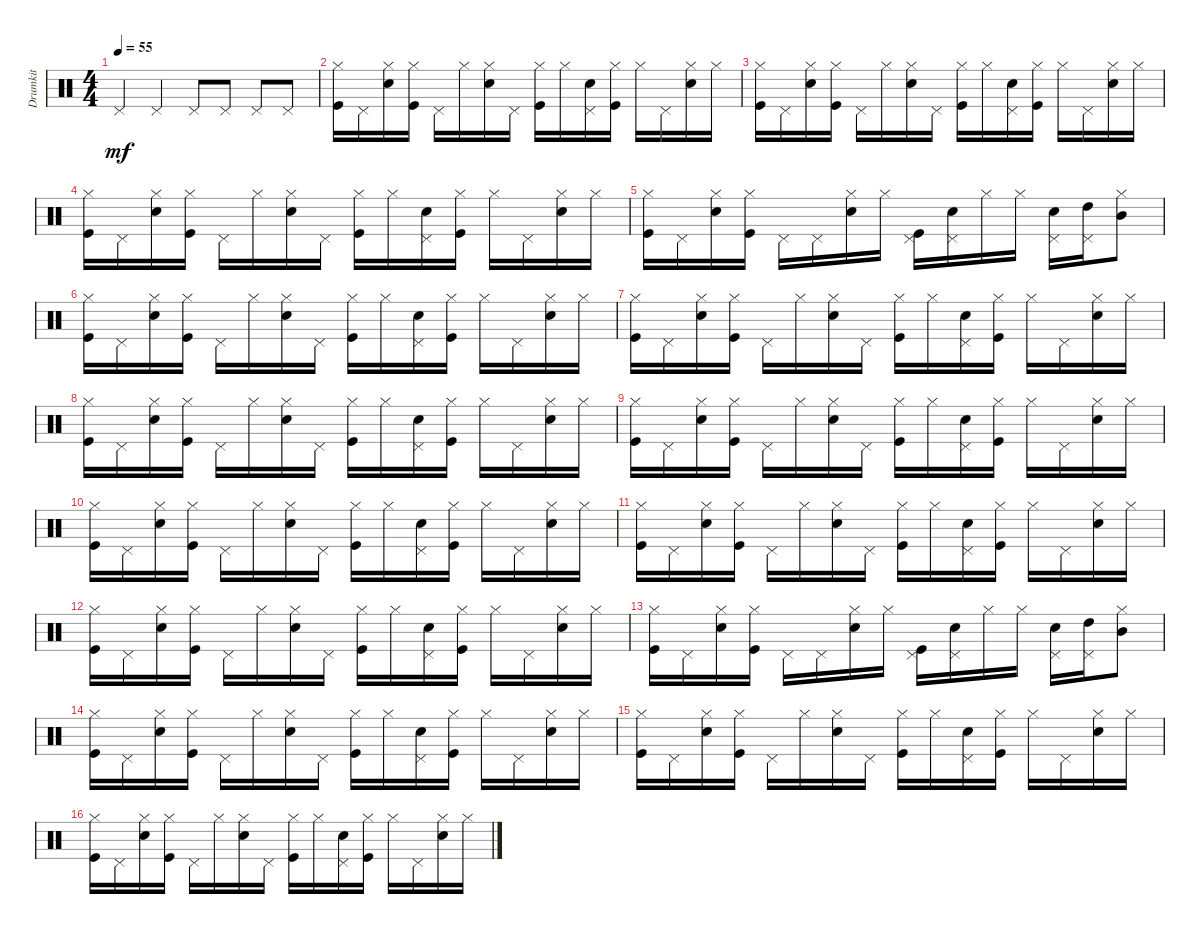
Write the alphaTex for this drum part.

\track ("Drumkit" "Drumkit") {instrument percussion}
\staff {score}
\articulation defaults
\ts (4 4)
\tempo 55
\clef neutral
\ks c "Pedal Hi-Hat (hit)".4{dy mf} "Pedal Hi-Hat (hit)".4 "Pedal Hi-Hat (hit)".8 "Pedal Hi-Hat (hit)".8 "Pedal Hi-Hat (hit)".8 "Pedal Hi-Hat (hit)".8
|
("Kick (hit)" "Hi-Hat (closed)").16 "Pedal Hi-Hat (hit)".16 ("Hi-Hat (closed)" "Snare (hit) 2").16 ("Kick (hit)" "Hi-Hat (closed)").16 "Pedal Hi-Hat (hit)".16 "Hi-Hat (closed)".16 ("Snare (hit) 2" "Hi-Hat (closed)").16 "Pedal Hi-Hat (hit)".16 ("Kick (hit)" "Hi-Hat (closed)").16 "Hi-Hat (closed)".16 ("Snare (hit) 2" "Pedal Hi-Hat (hit)").16 ("Kick (hit)" "Hi-Hat (closed)").16 "Hi-Hat (closed)".16 "Pedal Hi-Hat (hit)".16 ("Snare (hit) 2" "Hi-Hat (closed)").16 "Hi-Hat (closed)".16 |
("Kick (hit)" "Hi-Hat (closed)").16 "Pedal Hi-Hat (hit)".16 ("Hi-Hat (closed)" "Snare (hit) 2").16 ("Kick (hit)" "Hi-Hat (closed)").16 "Pedal Hi-Hat (hit)".16 "Hi-Hat (closed)".16 ("Snare (hit) 2" "Hi-Hat (closed)").16 "Pedal Hi-Hat (hit)".16 ("Kick (hit)" "Hi-Hat (closed)").16 "Hi-Hat (closed)".16 ("Snare (hit) 2" "Pedal Hi-Hat (hit)").16 ("Kick (hit)" "Hi-Hat (closed)").16 "Hi-Hat (closed)".16 "Pedal Hi-Hat (hit)".16 ("Snare (hit) 2" "Hi-Hat (closed)").16 "Hi-Hat (closed)".16 |
("Kick (hit)" "Hi-Hat (closed)").16 "Pedal Hi-Hat (hit)".16 ("Hi-Hat (closed)" "Snare (hit) 2").16 ("Kick (hit)" "Hi-Hat (closed)").16 "Pedal Hi-Hat (hit)".16 "Hi-Hat (closed)".16 ("Snare (hit) 2" "Hi-Hat (closed)").16 "Pedal Hi-Hat (hit)".16 ("Kick (hit)" "Hi-Hat (closed)").16 "Hi-Hat (closed)".16 ("Snare (hit) 2" "Pedal Hi-Hat (hit)").16 ("Kick (hit)" "Hi-Hat (closed)").16 "Hi-Hat (closed)".16 "Pedal Hi-Hat (hit)".16 ("Snare (hit) 2" "Hi-Hat (closed)").16 "Hi-Hat (closed)".16 |
("Kick (hit)" "Hi-Hat (closed)").16 "Pedal Hi-Hat (hit)".16 ("Hi-Hat (closed)" "Snare (hit) 2").16 ("Kick (hit)" "Hi-Hat (closed)").16 "Pedal Hi-Hat (hit)".16 "Pedal Hi-Hat (hit)".16 ("Snare (hit) 2" "Hi-Hat (closed)").16 "Hi-Hat (closed)".16 ("Pedal Hi-Hat (hit)" "Kick (hit)").16 ("Pedal Hi-Hat (hit)" "Snare (hit) 2").16 "Hi-Hat (closed)".16 "Hi-Hat (closed)".16 ("Snare (hit) 2" "Pedal Hi-Hat (hit)").16 ("Pedal Hi-Hat (hit)" "High Tom (hit)").16 ("Hi-Hat (closed)" "Mid Tom (hit)").8 |
("Kick (hit)" "Hi-Hat (closed)").16 "Pedal Hi-Hat (hit)".16 ("Hi-Hat (closed)" "Snare (hit) 2").16 ("Kick (hit)" "Hi-Hat (closed)").16 "Pedal Hi-Hat (hit)".16 "Hi-Hat (closed)".16 ("Snare (hit) 2" "Hi-Hat (closed)").16 "Pedal Hi-Hat (hit)".16 ("Kick (hit)" "Hi-Hat (closed)").16 "Hi-Hat (closed)".16 ("Snare (hit) 2" "Pedal Hi-Hat (hit)").16 ("Kick (hit)" "Hi-Hat (closed)").16 "Hi-Hat (closed)".16 "Pedal Hi-Hat (hit)".16 ("Snare (hit) 2" "Hi-Hat (closed)").16 "Hi-Hat (closed)".16 |
("Kick (hit)" "Hi-Hat (closed)").16 "Pedal Hi-Hat (hit)".16 ("Hi-Hat (closed)" "Snare (hit) 2").16 ("Kick (hit)" "Hi-Hat (closed)").16 "Pedal Hi-Hat (hit)".16 "Hi-Hat (closed)".16 ("Snare (hit) 2" "Hi-Hat (closed)").16 "Pedal Hi-Hat (hit)".16 ("Kick (hit)" "Hi-Hat (closed)").16 "Hi-Hat (closed)".16 ("Snare (hit) 2" "Pedal Hi-Hat (hit)").16 ("Kick (hit)" "Hi-Hat (closed)").16 "Hi-Hat (closed)".16 "Pedal Hi-Hat (hit)".16 ("Snare (hit) 2" "Hi-Hat (closed)").16 "Hi-Hat (closed)".16 |
("Kick (hit)" "Hi-Hat (closed)").16 "Pedal Hi-Hat (hit)".16 ("Hi-Hat (closed)" "Snare (hit) 2").16 ("Kick (hit)" "Hi-Hat (closed)").16 "Pedal Hi-Hat (hit)".16 "Hi-Hat (closed)".16 ("Snare (hit) 2" "Hi-Hat (closed)").16 "Pedal Hi-Hat (hit)".16 ("Kick (hit)" "Hi-Hat (closed)").16 "Hi-Hat (closed)".16 ("Snare (hit) 2" "Pedal Hi-Hat (hit)").16 ("Kick (hit)" "Hi-Hat (closed)").16 "Hi-Hat (closed)".16 "Pedal Hi-Hat (hit)".16 ("Snare (hit) 2" "Hi-Hat (closed)").16 "Hi-Hat (closed)".16 |
("Kick (hit)" "Hi-Hat (closed)").16 "Pedal Hi-Hat (hit)".16 ("Hi-Hat (closed)" "Snare (hit) 2").16 ("Kick (hit)" "Hi-Hat (closed)").16 "Pedal Hi-Hat (hit)".16 "Hi-Hat (closed)".16 ("Snare (hit) 2" "Hi-Hat (closed)").16 "Pedal Hi-Hat (hit)".16 ("Kick (hit)" "Hi-Hat (closed)").16 "Hi-Hat (closed)".16 ("Snare (hit) 2" "Pedal Hi-Hat (hit)").16 ("Kick (hit)" "Hi-Hat (closed)").16 "Hi-Hat (closed)".16 "Pedal Hi-Hat (hit)".16 ("Snare (hit) 2" "Hi-Hat (closed)").16 "Hi-Hat (closed)".16 |
("Kick (hit)" "Hi-Hat (closed)").16 "Pedal Hi-Hat (hit)".16 ("Hi-Hat (closed)" "Snare (hit) 2").16 ("Kick (hit)" "Hi-Hat (closed)").16 "Pedal Hi-Hat (hit)".16 "Hi-Hat (closed)".16 ("Snare (hit) 2" "Hi-Hat (closed)").16 "Pedal Hi-Hat (hit)".16 ("Kick (hit)" "Hi-Hat (closed)").16 "Hi-Hat (closed)".16 ("Snare (hit) 2" "Pedal Hi-Hat (hit)").16 ("Kick (hit)" "Hi-Hat (closed)").16 "Hi-Hat (closed)".16 "Pedal Hi-Hat (hit)".16 ("Snare (hit) 2" "Hi-Hat (closed)").16 "Hi-Hat (closed)".16 |
("Kick (hit)" "Hi-Hat (closed)").16 "Pedal Hi-Hat (hit)".16 ("Hi-Hat (closed)" "Snare (hit) 2").16 ("Kick (hit)" "Hi-Hat (closed)").16 "Pedal Hi-Hat (hit)".16 "Hi-Hat (closed)".16 ("Snare (hit) 2" "Hi-Hat (closed)").16 "Pedal Hi-Hat (hit)".16 ("Kick (hit)" "Hi-Hat (closed)").16 "Hi-Hat (closed)".16 ("Snare (hit) 2" "Pedal Hi-Hat (hit)").16 ("Kick (hit)" "Hi-Hat (closed)").16 "Hi-Hat (closed)".16 "Pedal Hi-Hat (hit)".16 ("Snare (hit) 2" "Hi-Hat (closed)").16 "Hi-Hat (closed)".16 |
("Kick (hit)" "Hi-Hat (closed)").16 "Pedal Hi-Hat (hit)".16 ("Hi-Hat (closed)" "Snare (hit) 2").16 ("Kick (hit)" "Hi-Hat (closed)").16 "Pedal Hi-Hat (hit)".16 "Hi-Hat (closed)".16 ("Snare (hit) 2" "Hi-Hat (closed)").16 "Pedal Hi-Hat (hit)".16 ("Kick (hit)" "Hi-Hat (closed)").16 "Hi-Hat (closed)".16 ("Snare (hit) 2" "Pedal Hi-Hat (hit)").16 ("Kick (hit)" "Hi-Hat (closed)").16 "Hi-Hat (closed)".16 "Pedal Hi-Hat (hit)".16 ("Snare (hit) 2" "Hi-Hat (closed)").16 "Hi-Hat (closed)".16 |
("Kick (hit)" "Hi-Hat (closed)").16 "Pedal Hi-Hat (hit)".16 ("Hi-Hat (closed)" "Snare (hit) 2").16 ("Kick (hit)" "Hi-Hat (closed)").16 "Pedal Hi-Hat (hit)".16 "Pedal Hi-Hat (hit)".16 ("Snare (hit) 2" "Hi-Hat (closed)").16 "Hi-Hat (closed)".16 ("Pedal Hi-Hat (hit)" "Kick (hit)").16 ("Pedal Hi-Hat (hit)" "Snare (hit) 2").16 "Hi-Hat (closed)".16 "Hi-Hat (closed)".16 ("Snare (hit) 2" "Pedal Hi-Hat (hit)").16 ("Pedal Hi-Hat (hit)" "High Tom (hit)").16 ("Hi-Hat (closed)" "Mid Tom (hit)").8 |
("Kick (hit)" "Hi-Hat (closed)").16 "Pedal Hi-Hat (hit)".16 ("Hi-Hat (closed)" "Snare (hit) 2").16 ("Kick (hit)" "Hi-Hat (closed)").16 "Pedal Hi-Hat (hit)".16 "Hi-Hat (closed)".16 ("Snare (hit) 2" "Hi-Hat (closed)").16 "Pedal Hi-Hat (hit)".16 ("Kick (hit)" "Hi-Hat (closed)").16 "Hi-Hat (closed)".16 ("Snare (hit) 2" "Pedal Hi-Hat (hit)").16 ("Kick (hit)" "Hi-Hat (closed)").16 "Hi-Hat (closed)".16 "Pedal Hi-Hat (hit)".16 ("Snare (hit) 2" "Hi-Hat (closed)").16 "Hi-Hat (closed)".16 |
("Kick (hit)" "Hi-Hat (closed)").16 "Pedal Hi-Hat (hit)".16 ("Hi-Hat (closed)" "Snare (hit) 2").16 ("Kick (hit)" "Hi-Hat (closed)").16 "Pedal Hi-Hat (hit)".16 "Hi-Hat (closed)".16 ("Snare (hit) 2" "Hi-Hat (closed)").16 "Pedal Hi-Hat (hit)".16 ("Kick (hit)" "Hi-Hat (closed)").16 "Hi-Hat (closed)".16 ("Snare (hit) 2" "Pedal Hi-Hat (hit)").16 ("Kick (hit)" "Hi-Hat (closed)").16 "Hi-Hat (closed)".16 "Pedal Hi-Hat (hit)".16 ("Snare (hit) 2" "Hi-Hat (closed)").16 "Hi-Hat (closed)".16 |
("Kick (hit)" "Hi-Hat (closed)").16 "Pedal Hi-Hat (hit)".16 ("Hi-Hat (closed)" "Snare (hit) 2").16 ("Kick (hit)" "Hi-Hat (closed)").16 "Pedal Hi-Hat (hit)".16 "Hi-Hat (closed)".16 ("Snare (hit) 2" "Hi-Hat (closed)").16 "Pedal Hi-Hat (hit)".16 ("Kick (hit)" "Hi-Hat (closed)").16 "Hi-Hat (closed)".16 ("Snare (hit) 2" "Pedal Hi-Hat (hit)").16 ("Kick (hit)" "Hi-Hat (closed)").16 "Hi-Hat (closed)".16 "Pedal Hi-Hat (hit)".16 ("Snare (hit) 2" "Hi-Hat (closed)").16 "Hi-Hat (closed)".16
